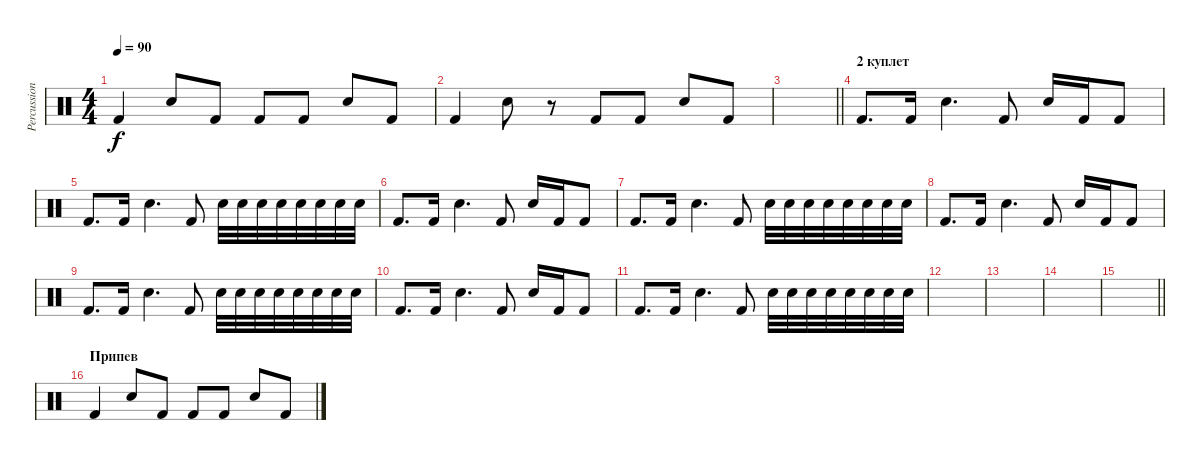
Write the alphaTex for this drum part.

\track ("Percussion" "Percussion") {instrument percussion}
\staff {score}
\articulation defaults
\ts (4 4)
\tempo 90
\clef neutral
\ks c "Kick (hit) 2".4{dy f} "Snare (hit) 2".8 "Kick (hit) 2".8 "Kick (hit) 2".8 "Kick (hit) 2".8 "Snare (hit) 2".8 "Kick (hit) 2".8
|
"Kick (hit) 2".4 "Snare (hit) 2".8 r.8 "Kick (hit) 2".8 "Kick (hit) 2".8 "Snare (hit) 2".8 "Kick (hit) 2".8 |
\barLineRight lightlight
|
\section ("" "2 куплет")
"Kick (hit) 2".8{d} "Kick (hit) 2".16 "Snare (hit) 2".4{d} "Kick (hit) 2".8 "Snare (hit) 2".16 "Kick (hit) 2".16 "Kick (hit) 2".8 |
"Kick (hit) 2".8{d} "Kick (hit) 2".16 "Snare (hit) 2".4{d} "Kick (hit) 2".8 "Snare (hit) 2".32 "Snare (hit) 2".32 "Snare (hit) 2".32 "Snare (hit) 2".32 "Snare (hit) 2".32 "Snare (hit) 2".32 "Snare (hit) 2".32 "Snare (hit) 2".32 |
"Kick (hit) 2".8{d} "Kick (hit) 2".16 "Snare (hit) 2".4{d} "Kick (hit) 2".8 "Snare (hit) 2".16 "Kick (hit) 2".16 "Kick (hit) 2".8 |
"Kick (hit) 2".8{d} "Kick (hit) 2".16 "Snare (hit) 2".4{d} "Kick (hit) 2".8 "Snare (hit) 2".32 "Snare (hit) 2".32 "Snare (hit) 2".32 "Snare (hit) 2".32 "Snare (hit) 2".32 "Snare (hit) 2".32 "Snare (hit) 2".32 "Snare (hit) 2".32 |
"Kick (hit) 2".8{d} "Kick (hit) 2".16 "Snare (hit) 2".4{d} "Kick (hit) 2".8 "Snare (hit) 2".16 "Kick (hit) 2".16 "Kick (hit) 2".8 |
"Kick (hit) 2".8{d} "Kick (hit) 2".16 "Snare (hit) 2".4{d} "Kick (hit) 2".8 "Snare (hit) 2".32 "Snare (hit) 2".32 "Snare (hit) 2".32 "Snare (hit) 2".32 "Snare (hit) 2".32 "Snare (hit) 2".32 "Snare (hit) 2".32 "Snare (hit) 2".32 |
"Kick (hit) 2".8{d} "Kick (hit) 2".16 "Snare (hit) 2".4{d} "Kick (hit) 2".8 "Snare (hit) 2".16 "Kick (hit) 2".16 "Kick (hit) 2".8 |
"Kick (hit) 2".8{d} "Kick (hit) 2".16 "Snare (hit) 2".4{d} "Kick (hit) 2".8 "Snare (hit) 2".32 "Snare (hit) 2".32 "Snare (hit) 2".32 "Snare (hit) 2".32 "Snare (hit) 2".32 "Snare (hit) 2".32 "Snare (hit) 2".32 "Snare (hit) 2".32 |
|
|
|
\barLineRight lightlight
|
\section ("" "Припев")
"Kick (hit) 2".4 "Snare (hit) 2".8 "Kick (hit) 2".8 "Kick (hit) 2".8 "Kick (hit) 2".8 "Snare (hit) 2".8 "Kick (hit) 2".8
